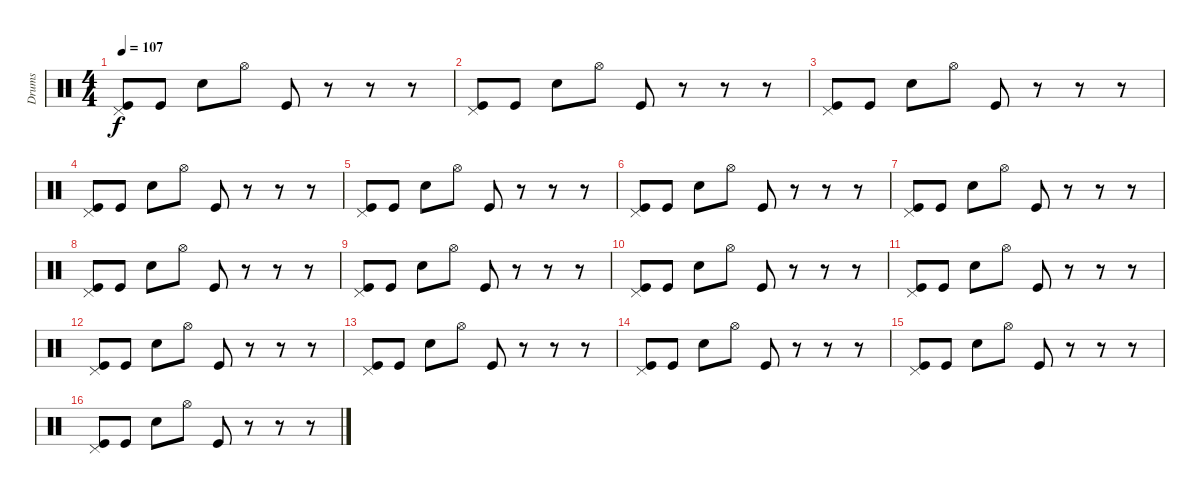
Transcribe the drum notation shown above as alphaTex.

\track ("Drums" "Drums") {instrument percussion}
\staff {score}
\articulation defaults
\ts (4 4)
\tempo 107
\clef neutral
\ks c
("Pedal Hi-Hat (hit)" "Kick (hit)").8{dy f} "Kick (hit)".8 "Electric Snare (hit)".8 "Hi-Hat (open)".8 "Kick (hit)".8 r.8 r.8 r.8 |
("Pedal Hi-Hat (hit)" "Kick (hit)").8 "Kick (hit)".8 "Electric Snare (hit)".8 "Hi-Hat (open)".8 "Kick (hit)".8 r.8 r.8 r.8 |
("Pedal Hi-Hat (hit)" "Kick (hit)").8 "Kick (hit)".8 "Electric Snare (hit)".8 "Hi-Hat (open)".8 "Kick (hit)".8 r.8 r.8 r.8 |
("Pedal Hi-Hat (hit)" "Kick (hit)").8 "Kick (hit)".8 "Electric Snare (hit)".8 "Hi-Hat (open)".8 "Kick (hit)".8 r.8 r.8 r.8 |
("Pedal Hi-Hat (hit)" "Kick (hit)").8 "Kick (hit)".8 "Electric Snare (hit)".8 "Hi-Hat (open)".8 "Kick (hit)".8 r.8 r.8 r.8 |
("Pedal Hi-Hat (hit)" "Kick (hit)").8 "Kick (hit)".8 "Electric Snare (hit)".8 "Hi-Hat (open)".8 "Kick (hit)".8 r.8 r.8 r.8 |
("Pedal Hi-Hat (hit)" "Kick (hit)").8 "Kick (hit)".8 "Electric Snare (hit)".8 "Hi-Hat (open)".8 "Kick (hit)".8 r.8 r.8 r.8 |
("Pedal Hi-Hat (hit)" "Kick (hit)").8 "Kick (hit)".8 "Electric Snare (hit)".8 "Hi-Hat (open)".8 "Kick (hit)".8 r.8 r.8 r.8 |
\section ("" "")
("Pedal Hi-Hat (hit)" "Kick (hit)").8 "Kick (hit)".8 "Electric Snare (hit)".8 "Hi-Hat (open)".8 "Kick (hit)".8 r.8 r.8 r.8 |
("Pedal Hi-Hat (hit)" "Kick (hit)").8 "Kick (hit)".8 "Electric Snare (hit)".8 "Hi-Hat (open)".8 "Kick (hit)".8 r.8 r.8 r.8 |
("Pedal Hi-Hat (hit)" "Kick (hit)").8 "Kick (hit)".8 "Electric Snare (hit)".8 "Hi-Hat (open)".8 "Kick (hit)".8 r.8 r.8 r.8 |
("Pedal Hi-Hat (hit)" "Kick (hit)").8 "Kick (hit)".8 "Electric Snare (hit)".8 "Hi-Hat (open)".8 "Kick (hit)".8 r.8 r.8 r.8 |
("Pedal Hi-Hat (hit)" "Kick (hit)").8 "Kick (hit)".8 "Electric Snare (hit)".8 "Hi-Hat (open)".8 "Kick (hit)".8 r.8 r.8 r.8 |
("Pedal Hi-Hat (hit)" "Kick (hit)").8 "Kick (hit)".8 "Electric Snare (hit)".8 "Hi-Hat (open)".8 "Kick (hit)".8 r.8 r.8 r.8 |
("Pedal Hi-Hat (hit)" "Kick (hit)").8 "Kick (hit)".8 "Electric Snare (hit)".8 "Hi-Hat (open)".8 "Kick (hit)".8 r.8 r.8 r.8 |
("Pedal Hi-Hat (hit)" "Kick (hit)").8 "Kick (hit)".8 "Electric Snare (hit)".8 "Hi-Hat (open)".8 "Kick (hit)".8 r.8 r.8 r.8
